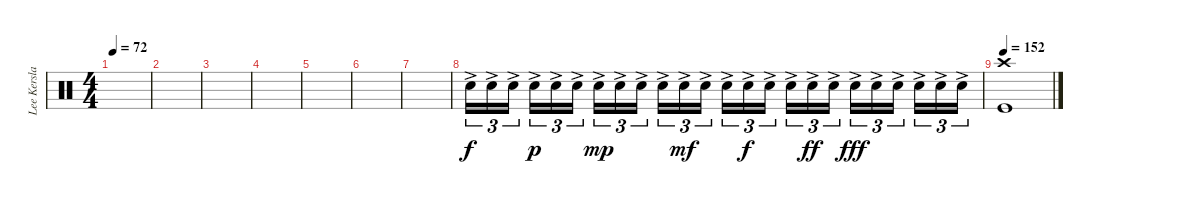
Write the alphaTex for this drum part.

\track ("Lee Kerslake" "Lee Kersla") {instrument percussion}
\staff {score}
\articulation defaults
\ts (4 4)
\tempo 72
\clef neutral
\ks c
|
|
|
|
|
|
|
"Electric Snare (hit)"{ac}.16{tu (3 2)} "Electric Snare (hit)"{ac}.16{tu (3 2)} "Electric Snare (hit)"{ac}.16{tu (3 2) beam splitsecondary} "Electric Snare (hit)"{ac}.16{tu (3 2) dy p} "Electric Snare (hit)"{ac}.16{tu (3 2)} "Electric Snare (hit)"{ac}.16{tu (3 2)} "Electric Snare (hit)"{ac}.16{tu (3 2) dy mp} "Electric Snare (hit)"{ac}.16{tu (3 2)} "Electric Snare (hit)"{ac}.16{tu (3 2) beam splitsecondary} "Electric Snare (hit)"{ac}.16{tu (3 2)} "Electric Snare (hit)"{ac}.16{tu (3 2) dy mf} "Electric Snare (hit)"{ac}.16{tu (3 2)} "Electric Snare (hit)"{ac}.16{tu (3 2)} "Electric Snare (hit)"{ac}.16{tu (3 2) dy f} "Electric Snare (hit)"{ac}.16{tu (3 2) beam splitsecondary} "Electric Snare (hit)"{ac}.16{tu (3 2)} "Electric Snare (hit)"{ac}.16{tu (3 2) dy ff} "Electric Snare (hit)"{ac}.16{tu (3 2)} "Electric Snare (hit)"{ac}.16{tu (3 2) dy fff} "Electric Snare (hit)"{ac}.16{tu (3 2)} "Electric Snare (hit)"{ac}.16{tu (3 2) beam splitsecondary} "Electric Snare (hit)"{ac}.16{tu (3 2)} "Electric Snare (hit)"{ac}.16{tu (3 2)} "Electric Snare (hit)"{ac}.16{tu (3 2)} |
\tempo 152
("Kick (hit)" "Crash high (hit)").1
